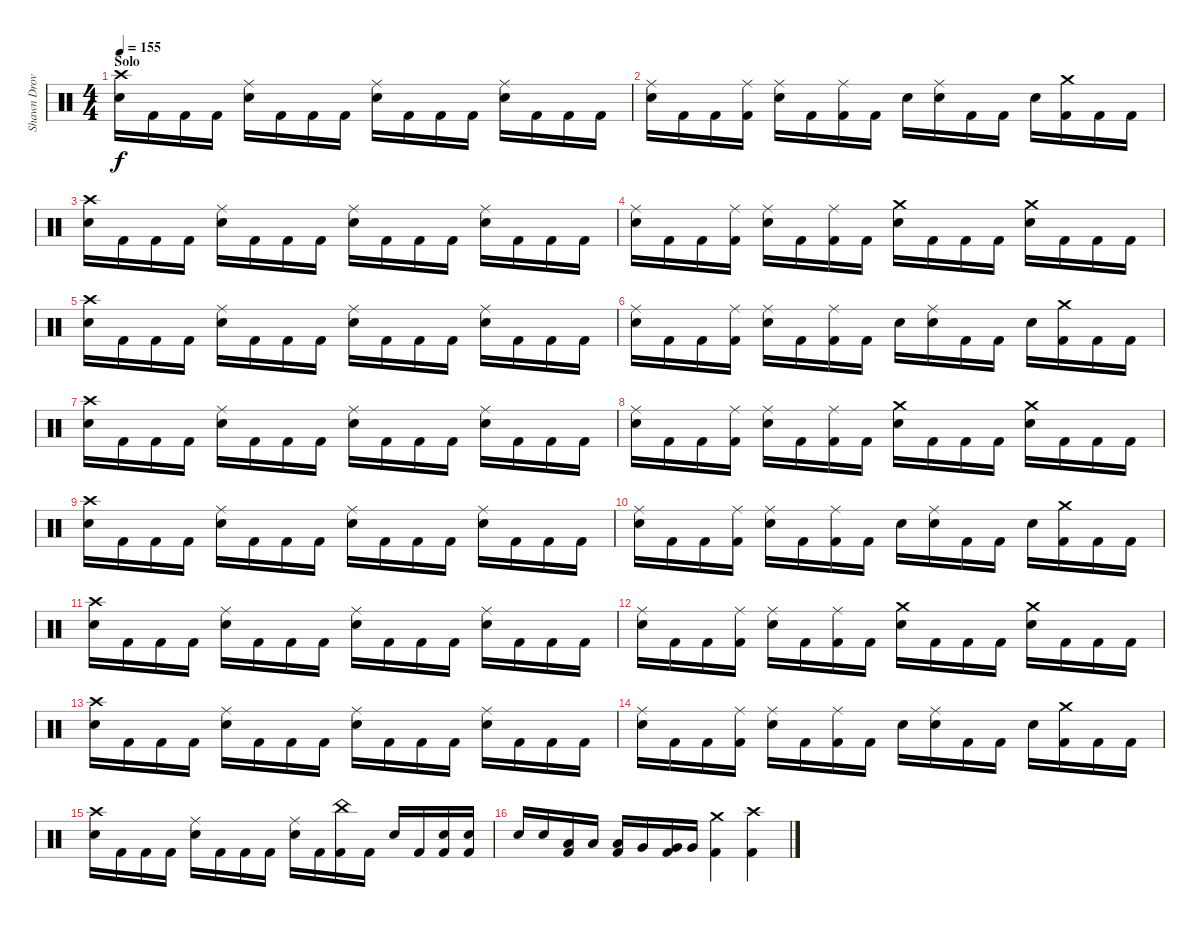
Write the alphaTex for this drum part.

\track ("Shawn Drover" "Shawn Drov") {instrument percussion}
\staff {score}
\articulation defaults
\ts (4 4)
\section ("" "Solo")
\tempo 155
\clef neutral
\ks c
("Crash high (hit)" "Snare (hit) 2").16{dy f} "Kick (hit) 2".16 "Kick (hit) 2".16 "Kick (hit) 2".16 ("Ride (middle)" "Snare (hit) 2").16 "Kick (hit) 2".16 "Kick (hit) 2".16 "Kick (hit) 2".16 ("Ride (middle)" "Snare (hit) 2").16 "Kick (hit) 2".16 "Kick (hit) 2".16 "Kick (hit) 2".16 ("Ride (middle)" "Snare (hit) 2").16 "Kick (hit) 2".16 "Kick (hit) 2".16 "Kick (hit) 2".16 |
("Ride (middle)" "Snare (hit) 2").16 "Kick (hit) 2".16 "Kick (hit) 2".16 ("Ride (middle)" "Kick (hit) 2").16 ("Ride (middle)" "Snare (hit) 2").16 "Kick (hit) 2".16 ("Ride (middle)" "Kick (hit) 2").16 "Kick (hit) 2".16 "Snare (hit) 2".16 ("Ride (middle)" "Snare (hit) 2").16 "Kick (hit) 2".16 "Kick (hit) 2".16 "Snare (hit) 2".16 ("Crash medium (hit)" "Kick (hit) 2").16 "Kick (hit) 2".16 "Kick (hit) 2".16 |
("Crash high (hit)" "Snare (hit) 2").16 "Kick (hit) 2".16 "Kick (hit) 2".16 "Kick (hit) 2".16 ("Ride (middle)" "Snare (hit) 2").16 "Kick (hit) 2".16 "Kick (hit) 2".16 "Kick (hit) 2".16 ("Ride (middle)" "Snare (hit) 2").16 "Kick (hit) 2".16 "Kick (hit) 2".16 "Kick (hit) 2".16 ("Ride (middle)" "Snare (hit) 2").16 "Kick (hit) 2".16 "Kick (hit) 2".16 "Kick (hit) 2".16 |
("Ride (middle)" "Snare (hit) 2").16 "Kick (hit) 2".16 "Kick (hit) 2".16 ("Ride (middle)" "Kick (hit) 2").16 ("Ride (middle)" "Snare (hit) 2").16 "Kick (hit) 2".16 ("Ride (middle)" "Kick (hit) 2").16 "Kick (hit) 2".16 ("Crash medium (hit)" "Snare (hit) 2").16 "Kick (hit) 2".16 "Kick (hit) 2".16 "Kick (hit) 2".16 ("Crash medium (hit)" "Snare (hit) 2").16 "Kick (hit) 2".16 "Kick (hit) 2".16 "Kick (hit) 2".16 |
("Crash high (hit)" "Snare (hit) 2").16 "Kick (hit) 2".16 "Kick (hit) 2".16 "Kick (hit) 2".16 ("Ride (middle)" "Snare (hit) 2").16 "Kick (hit) 2".16 "Kick (hit) 2".16 "Kick (hit) 2".16 ("Ride (middle)" "Snare (hit) 2").16 "Kick (hit) 2".16 "Kick (hit) 2".16 "Kick (hit) 2".16 ("Ride (middle)" "Snare (hit) 2").16 "Kick (hit) 2".16 "Kick (hit) 2".16 "Kick (hit) 2".16 |
("Ride (middle)" "Snare (hit) 2").16 "Kick (hit) 2".16 "Kick (hit) 2".16 ("Ride (middle)" "Kick (hit) 2").16 ("Ride (middle)" "Snare (hit) 2").16 "Kick (hit) 2".16 ("Ride (middle)" "Kick (hit) 2").16 "Kick (hit) 2".16 "Snare (hit) 2".16 ("Ride (middle)" "Snare (hit) 2").16 "Kick (hit) 2".16 "Kick (hit) 2".16 "Snare (hit) 2".16 ("Crash medium (hit)" "Kick (hit) 2").16 "Kick (hit) 2".16 "Kick (hit) 2".16 |
("Crash high (hit)" "Snare (hit) 2").16 "Kick (hit) 2".16 "Kick (hit) 2".16 "Kick (hit) 2".16 ("Ride (middle)" "Snare (hit) 2").16 "Kick (hit) 2".16 "Kick (hit) 2".16 "Kick (hit) 2".16 ("Ride (middle)" "Snare (hit) 2").16 "Kick (hit) 2".16 "Kick (hit) 2".16 "Kick (hit) 2".16 ("Ride (middle)" "Snare (hit) 2").16 "Kick (hit) 2".16 "Kick (hit) 2".16 "Kick (hit) 2".16 |
("Ride (middle)" "Snare (hit) 2").16 "Kick (hit) 2".16 "Kick (hit) 2".16 ("Ride (middle)" "Kick (hit) 2").16 ("Ride (middle)" "Snare (hit) 2").16 "Kick (hit) 2".16 ("Ride (middle)" "Kick (hit) 2").16 "Kick (hit) 2".16 ("Crash medium (hit)" "Snare (hit) 2").16 "Kick (hit) 2".16 "Kick (hit) 2".16 "Kick (hit) 2".16 ("Crash medium (hit)" "Snare (hit) 2").16 "Kick (hit) 2".16 "Kick (hit) 2".16 "Kick (hit) 2".16 |
("Crash high (hit)" "Snare (hit) 2").16 "Kick (hit) 2".16 "Kick (hit) 2".16 "Kick (hit) 2".16 ("Ride (middle)" "Snare (hit) 2").16 "Kick (hit) 2".16 "Kick (hit) 2".16 "Kick (hit) 2".16 ("Ride (middle)" "Snare (hit) 2").16 "Kick (hit) 2".16 "Kick (hit) 2".16 "Kick (hit) 2".16 ("Ride (middle)" "Snare (hit) 2").16 "Kick (hit) 2".16 "Kick (hit) 2".16 "Kick (hit) 2".16 |
("Ride (middle)" "Snare (hit) 2").16 "Kick (hit) 2".16 "Kick (hit) 2".16 ("Ride (middle)" "Kick (hit) 2").16 ("Ride (middle)" "Snare (hit) 2").16 "Kick (hit) 2".16 ("Ride (middle)" "Kick (hit) 2").16 "Kick (hit) 2".16 "Snare (hit) 2".16 ("Ride (middle)" "Snare (hit) 2").16 "Kick (hit) 2".16 "Kick (hit) 2".16 "Snare (hit) 2".16 ("Crash medium (hit)" "Kick (hit) 2").16 "Kick (hit) 2".16 "Kick (hit) 2".16 |
("Crash high (hit)" "Snare (hit) 2").16 "Kick (hit) 2".16 "Kick (hit) 2".16 "Kick (hit) 2".16 ("Ride (middle)" "Snare (hit) 2").16 "Kick (hit) 2".16 "Kick (hit) 2".16 "Kick (hit) 2".16 ("Ride (middle)" "Snare (hit) 2").16 "Kick (hit) 2".16 "Kick (hit) 2".16 "Kick (hit) 2".16 ("Ride (middle)" "Snare (hit) 2").16 "Kick (hit) 2".16 "Kick (hit) 2".16 "Kick (hit) 2".16 |
("Ride (middle)" "Snare (hit) 2").16 "Kick (hit) 2".16 "Kick (hit) 2".16 ("Ride (middle)" "Kick (hit) 2").16 ("Ride (middle)" "Snare (hit) 2").16 "Kick (hit) 2".16 ("Ride (middle)" "Kick (hit) 2").16 "Kick (hit) 2".16 ("Crash medium (hit)" "Snare (hit) 2").16 "Kick (hit) 2".16 "Kick (hit) 2".16 "Kick (hit) 2".16 ("Crash medium (hit)" "Snare (hit) 2").16 "Kick (hit) 2".16 "Kick (hit) 2".16 "Kick (hit) 2".16 |
("Crash high (hit)" "Snare (hit) 2").16 "Kick (hit) 2".16 "Kick (hit) 2".16 "Kick (hit) 2".16 ("Ride (middle)" "Snare (hit) 2").16 "Kick (hit) 2".16 "Kick (hit) 2".16 "Kick (hit) 2".16 ("Ride (middle)" "Snare (hit) 2").16 "Kick (hit) 2".16 "Kick (hit) 2".16 "Kick (hit) 2".16 ("Ride (middle)" "Snare (hit) 2").16 "Kick (hit) 2".16 "Kick (hit) 2".16 "Kick (hit) 2".16 |
("Ride (middle)" "Snare (hit) 2").16 "Kick (hit) 2".16 "Kick (hit) 2".16 ("Ride (middle)" "Kick (hit) 2").16 ("Ride (middle)" "Snare (hit) 2").16 "Kick (hit) 2".16 ("Ride (middle)" "Kick (hit) 2").16 "Kick (hit) 2".16 "Snare (hit) 2".16 ("Ride (middle)" "Snare (hit) 2").16 "Kick (hit) 2".16 "Kick (hit) 2".16 "Snare (hit) 2".16 ("Crash medium (hit)" "Kick (hit) 2").16 "Kick (hit) 2".16 "Kick (hit) 2".16 |
("Crash high (hit)" "Snare (hit) 2").16 "Kick (hit) 2".16 "Kick (hit) 2".16 "Kick (hit) 2".16 ("Ride (middle)" "Snare (hit) 2").16 "Kick (hit) 2".16 "Kick (hit) 2".16 "Kick (hit) 2".16 ("Ride (middle)" "Snare (hit) 2").16 "Kick (hit) 2".16 ("China (hit)" "Kick (hit) 2").16 "Kick (hit) 2".16 "Snare (hit) 2".16 "Kick (hit) 2".16 ("Snare (hit) 2" "Kick (hit) 2").16 ("Snare (hit) 2" "Kick (hit) 2").16 |
"Snare (hit) 2".16 "Snare (hit) 2".16 ("Low Tom (hit)" "Kick (hit) 2").16 "Low Tom (hit)".16 ("Low Tom (hit)" "Kick (hit) 2").16 "Very Low Tom (hit)".16 ("Very Low Tom (hit)" "Kick (hit) 2").16 "Very Low Tom (hit)".16 ("Crash medium (hit)" "Kick (hit) 2").4 ("Crash high (hit)" "Kick (hit) 2").4
